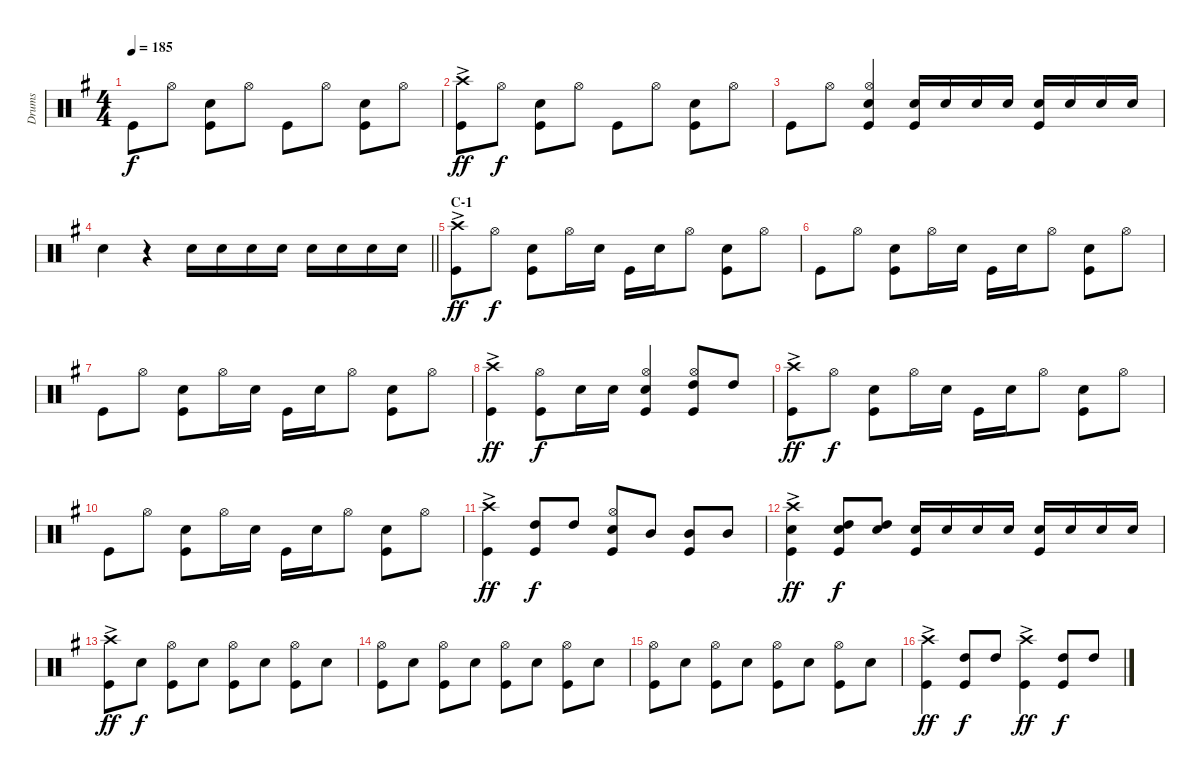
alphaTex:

\track ("Drums" "Drums") {instrument percussion}
\staff {score}
\articulation defaults
\ts (4 4)
\tempo 185
\clef neutral
\ks g "Kick (hit)".8{dy f} "Hi-Hat (open)".8
("Snare (hit) 2" "Kick (hit)").8 "Hi-Hat (open)".8 "Kick (hit)".8 "Hi-Hat (open)".8 ("Snare (hit) 2" "Kick (hit)").8 "Hi-Hat (open)".8 |
("Crash high (hit)"{ac} "Kick (hit)").8{dy ff} "Hi-Hat (open)".8{dy f} ("Snare (hit) 2" "Kick (hit)").8 "Hi-Hat (open)".8 "Kick (hit)".8 "Hi-Hat (open)".8 ("Snare (hit) 2" "Kick (hit)").8 "Hi-Hat (open)".8 |
"Kick (hit)".8 "Hi-Hat (open)".8 ("Hi-Hat (open)" "Snare (hit) 2" "Kick (hit)").4 ("Kick (hit)" "Snare (hit) 2").16 "Snare (hit) 2".16 "Snare (hit) 2".16 "Snare (hit) 2".16 ("Kick (hit)" "Snare (hit) 2").16 "Snare (hit) 2".16 "Snare (hit) 2".16 "Snare (hit) 2".16 |
\barLineRight lightlight "Snare (hit) 2".4
r.4 "Snare (hit) 2".16 "Snare (hit) 2".16 "Snare (hit) 2".16 "Snare (hit) 2".16 "Snare (hit) 2".16 "Snare (hit) 2".16 "Snare (hit) 2".16 "Snare (hit) 2".16 |
\section ("" "C-1")
("Crash high (hit)"{ac} "Kick (hit)").8{dy ff} "Hi-Hat (open)".8{dy f} ("Snare (hit) 2" "Kick (hit)").8 "Hi-Hat (open)".16 "Snare (hit) 2".16 "Kick (hit)".16 "Snare (hit) 2".16 "Hi-Hat (open)".8 ("Snare (hit) 2" "Kick (hit)").8 "Hi-Hat (open)".8 |
"Kick (hit)".8 "Hi-Hat (open)".8 ("Snare (hit) 2" "Kick (hit)").8 "Hi-Hat (open)".16 "Snare (hit) 2".16 "Kick (hit)".16 "Snare (hit) 2".16 "Hi-Hat (open)".8 ("Snare (hit) 2" "Kick (hit)").8 "Hi-Hat (open)".8 |
"Kick (hit)".8 "Hi-Hat (open)".8 ("Snare (hit) 2" "Kick (hit)").8 "Hi-Hat (open)".16 "Snare (hit) 2".16 "Kick (hit)".16 "Snare (hit) 2".16 "Hi-Hat (open)".8 ("Snare (hit) 2" "Kick (hit)").8 "Hi-Hat (open)".8 |
("Crash high (hit)"{ac} "Kick (hit)").4{dy ff} ("Hi-Hat (open)" "Kick (hit)").8{dy f} "Snare (hit) 2".16 "Snare (hit) 2".16 ("Hi-Hat (open)" "Snare (hit) 2" "Kick (hit)").4 ("Hi-Hat (open)" "High Tom (hit)" "Kick (hit)").8 "High Tom (hit)".8 |
("Crash high (hit)"{ac} "Kick (hit)").8{dy ff} "Hi-Hat (open)".8{dy f} ("Snare (hit) 2" "Kick (hit)").8 "Hi-Hat (open)".16 "Snare (hit) 2".16 "Kick (hit)".16 "Snare (hit) 2".16 "Hi-Hat (open)".8 ("Snare (hit) 2" "Kick (hit)").8 "Hi-Hat (open)".8 |
"Kick (hit)".8 "Hi-Hat (open)".8 ("Snare (hit) 2" "Kick (hit)").8 "Hi-Hat (open)".16 "Snare (hit) 2".16 "Kick (hit)".16 "Snare (hit) 2".16 "Hi-Hat (open)".8 ("Snare (hit) 2" "Kick (hit)").8 "Hi-Hat (open)".8 |
("Crash high (hit)"{ac} "Kick (hit)").4{dy ff} ("High Tom (hit)" "Kick (hit)").8{dy f} "High Tom (hit)".8 ("Hi-Hat (open)" "Snare (hit) 2" "Kick (hit)").8 "Mid Tom (hit)".8 ("Mid Tom (hit)" "Kick (hit)").8 "Mid Tom (hit)".8 |
("Crash high (hit)"{ac} "Snare (hit) 2" "Kick (hit)").4{dy ff} ("High Tom (hit)" "Snare (hit) 2" "Kick (hit)").8{dy f} ("High Tom (hit)" "Snare (hit) 2").8 ("Snare (hit) 2" "Kick (hit)").16 "Snare (hit) 2".16 "Snare (hit) 2".16 "Snare (hit) 2".16 ("Snare (hit) 2" "Kick (hit)").16 "Snare (hit) 2".16 "Snare (hit) 2".16 "Snare (hit) 2".16 |
("Crash high (hit)"{ac} "Kick (hit)").8{dy ff} "Snare (hit) 2".8{dy f} ("Hi-Hat (open)" "Kick (hit)").8 "Snare (hit) 2".8 ("Hi-Hat (open)" "Kick (hit)").8 "Snare (hit) 2".8 ("Hi-Hat (open)" "Kick (hit)").8 "Snare (hit) 2".8 |
("Hi-Hat (open)" "Kick (hit)").8 "Snare (hit) 2".8 ("Hi-Hat (open)" "Kick (hit)").8 "Snare (hit) 2".8 ("Hi-Hat (open)" "Kick (hit)").8 "Snare (hit) 2".8 ("Hi-Hat (open)" "Kick (hit)").8 "Snare (hit) 2".8 |
("Hi-Hat (open)" "Kick (hit)").8 "Snare (hit) 2".8 ("Hi-Hat (open)" "Kick (hit)").8 "Snare (hit) 2".8 ("Hi-Hat (open)" "Kick (hit)").8 "Snare (hit) 2".8 ("Hi-Hat (open)" "Kick (hit)").8 "Snare (hit) 2".8 |
("Crash high (hit)"{ac} "Kick (hit)").4{dy ff} ("High Tom (hit)" "Kick (hit)").8{dy f} "High Tom (hit)".8 ("Crash high (hit)"{ac} "Kick (hit)").4{dy ff} ("High Tom (hit)" "Kick (hit)").8{dy f} "High Tom (hit)".8
